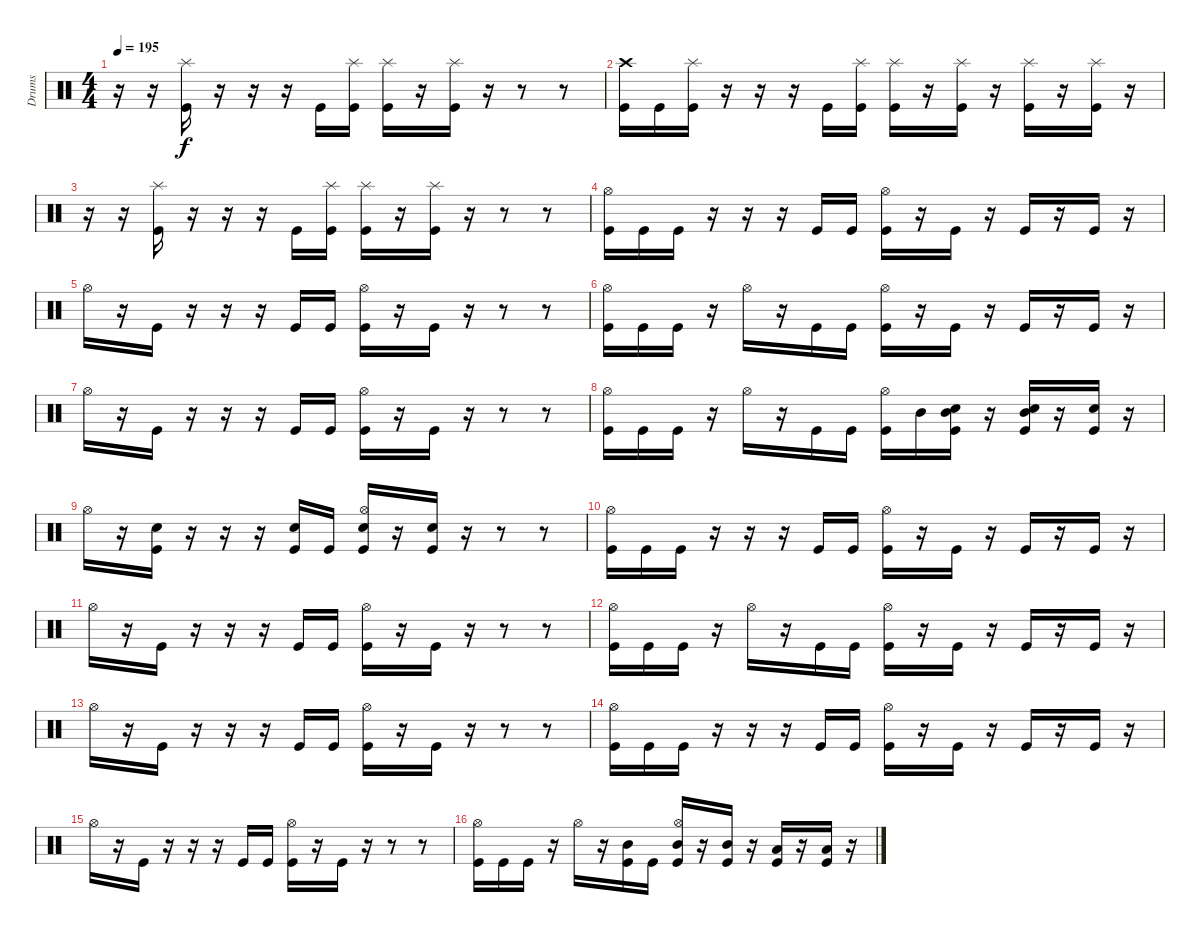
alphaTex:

\track ("Drums" "Drums") {instrument percussion}
\staff {score}
\articulation defaults
\ts (4 4)
\tempo 195
\clef neutral
\ks c
r.16{dy f} r.16 ("Splash (hit)" "Kick (hit)").16 r.16 r.16 r.16 "Kick (hit)".16 ("Splash (hit)" "Kick (hit)").16 ("Splash (hit)" "Kick (hit)").16 r.16 ("Splash (hit)" "Kick (hit)").16 r.16 r.8 r.8 |
("Crash high (hit)" "Kick (hit)").16 "Kick (hit)".16 ("Splash (hit)" "Kick (hit)").16 r.16 r.16 r.16 "Kick (hit)".16 ("Splash (hit)" "Kick (hit)").16 ("Splash (hit)" "Kick (hit)").16 r.16 ("Splash (hit)" "Kick (hit)").16 r.16 ("Splash (hit)" "Kick (hit)").16 r.16 ("Splash (hit)" "Kick (hit)").16 r.16 |
r.16 r.16 ("Splash (hit)" "Kick (hit)").16 r.16 r.16 r.16 "Kick (hit)".16 ("Splash (hit)" "Kick (hit)").16 ("Splash (hit)" "Kick (hit)").16 r.16 ("Splash (hit)" "Kick (hit)").16 r.16 r.8 r.8 |
("Hi-Hat (open)" "Kick (hit)").16 "Kick (hit)".16 "Kick (hit)".16 r.16 r.16 r.16 "Kick (hit)".16 "Kick (hit)".16 ("Hi-Hat (open)" "Kick (hit)").16 r.16 "Kick (hit)".16 r.16 "Kick (hit)".16 r.16 "Kick (hit)".16 r.16 |
"Hi-Hat (open)".16 r.16 "Kick (hit)".16 r.16 r.16 r.16 "Kick (hit)".16 "Kick (hit)".16 ("Hi-Hat (open)" "Kick (hit)").16 r.16 "Kick (hit)".16 r.16 r.8 r.8 |
("Hi-Hat (open)" "Kick (hit)").16 "Kick (hit)".16 "Kick (hit)".16 r.16 "Hi-Hat (open)".16 r.16 "Kick (hit)".16 "Kick (hit)".16 ("Hi-Hat (open)" "Kick (hit)").16 r.16 "Kick (hit)".16 r.16 "Kick (hit)".16 r.16 "Kick (hit)".16 r.16 |
"Hi-Hat (open)".16 r.16 "Kick (hit)".16 r.16 r.16 r.16 "Kick (hit)".16 "Kick (hit)".16 ("Hi-Hat (open)" "Kick (hit)").16 r.16 "Kick (hit)".16 r.16 r.8 r.8 |
("Hi-Hat (open)" "Kick (hit)").16 "Kick (hit)".16 "Kick (hit)".16 r.16 "Hi-Hat (open)".16 r.16 "Kick (hit)".16 "Kick (hit)".16 ("Hi-Hat (open)" "Kick (hit)").16 "Mid Tom (hit)".16 ("Mid Tom (hit)" "Electric Snare (hit)" "Kick (hit)").16 r.16 ("Mid Tom (hit)" "Electric Snare (hit)" "Kick (hit)").16 r.16 ("Electric Snare (hit)" "Kick (hit)").16 r.16 |
"Hi-Hat (open)".16 r.16 ("Electric Snare (hit)" "Kick (hit)").16 r.16 r.16 r.16 ("Electric Snare (hit)" "Kick (hit)").16 "Kick (hit)".16 ("Hi-Hat (open)" "Electric Snare (hit)" "Kick (hit)").16 r.16 ("Electric Snare (hit)" "Kick (hit)").16 r.16 r.8 r.8 |
("Hi-Hat (open)" "Kick (hit)").16 "Kick (hit)".16 "Kick (hit)".16 r.16 r.16 r.16 "Kick (hit)".16 "Kick (hit)".16 ("Hi-Hat (open)" "Kick (hit)").16 r.16 "Kick (hit)".16 r.16 "Kick (hit)".16 r.16 "Kick (hit)".16 r.16 |
"Hi-Hat (open)".16 r.16 "Kick (hit)".16 r.16 r.16 r.16 "Kick (hit)".16 "Kick (hit)".16 ("Hi-Hat (open)" "Kick (hit)").16 r.16 "Kick (hit)".16 r.16 r.8 r.8 |
("Hi-Hat (open)" "Kick (hit)").16 "Kick (hit)".16 "Kick (hit)".16 r.16 "Hi-Hat (open)".16 r.16 "Kick (hit)".16 "Kick (hit)".16 ("Hi-Hat (open)" "Kick (hit)").16 r.16 "Kick (hit)".16 r.16 "Kick (hit)".16 r.16 "Kick (hit)".16 r.16 |
"Hi-Hat (open)".16 r.16 "Kick (hit)".16 r.16 r.16 r.16 "Kick (hit)".16 "Kick (hit)".16 ("Hi-Hat (open)" "Kick (hit)").16 r.16 "Kick (hit)".16 r.16 r.8 r.8 |
("Hi-Hat (open)" "Kick (hit)").16 "Kick (hit)".16 "Kick (hit)".16 r.16 r.16 r.16 "Kick (hit)".16 "Kick (hit)".16 ("Hi-Hat (open)" "Kick (hit)").16 r.16 "Kick (hit)".16 r.16 "Kick (hit)".16 r.16 "Kick (hit)".16 r.16 |
"Hi-Hat (open)".16 r.16 "Kick (hit)".16 r.16 r.16 r.16 "Kick (hit)".16 "Kick (hit)".16 ("Hi-Hat (open)" "Kick (hit)").16 r.16 "Kick (hit)".16 r.16 r.8 r.8 |
("Hi-Hat (open)" "Kick (hit)").16 "Kick (hit)".16 "Kick (hit)".16 r.16 "Hi-Hat (open)".16 r.16 ("Mid Tom (hit)" "Kick (hit)").16 "Kick (hit)".16 ("Hi-Hat (open)" "Mid Tom (hit)" "Kick (hit)").16 r.16 ("Mid Tom (hit)" "Kick (hit)").16 r.16 ("Low Tom (hit)" "Kick (hit)").16 r.16 ("Low Tom (hit)" "Kick (hit)").16 r.16
